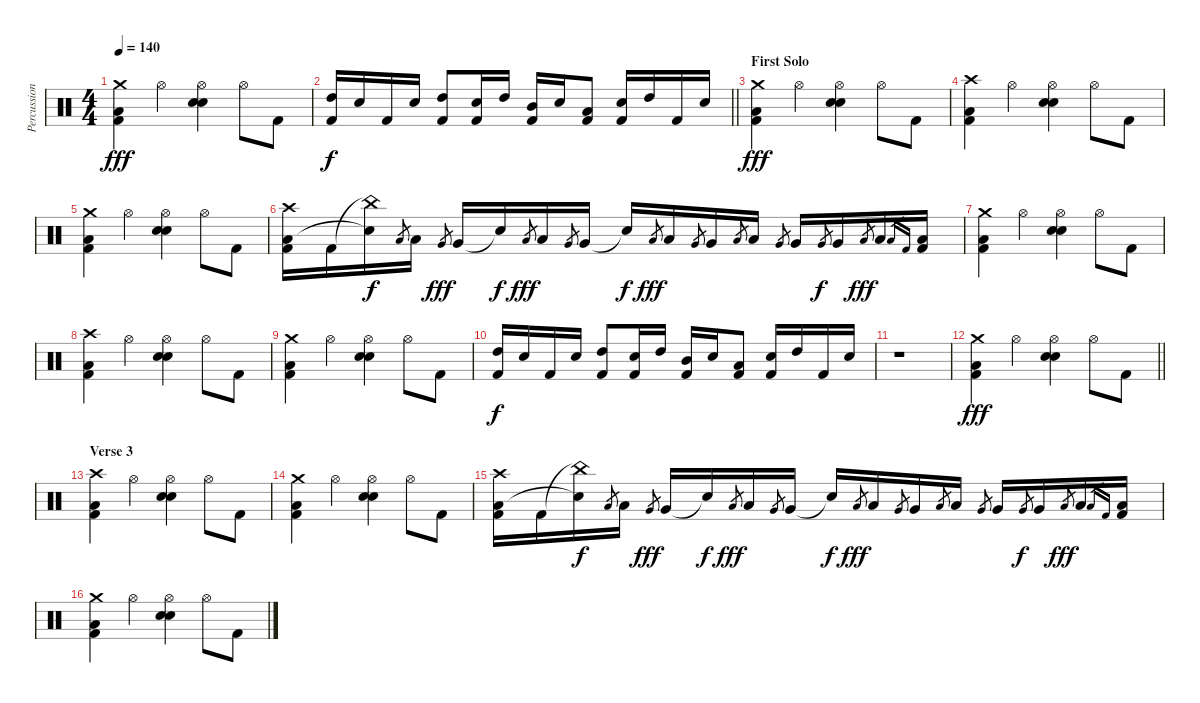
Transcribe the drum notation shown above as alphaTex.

\track ("Percussion" "Percussion") {instrument percussion}
\staff {score}
\articulation defaults
\ts (4 4)
\tempo 140
\clef neutral
\ks c
("Crash medium (hit)" "Low Floor Tom (hit)" "Kick (hit) 2").4{dy fff} "Hi-Hat (open)".4 ("Hi-Hat (open)" "Snare (hit) 2" "Electric Snare (hit)").4 "Hi-Hat (open)".8 "Kick (hit) 2".8 |
\barLineRight lightlight
("High Tom (hit)" "Kick (hit) 2").16{dy f} "Snare (hit) 2".16 "Kick (hit) 2".16 "Snare (hit) 2".16 ("High Tom (hit)" "Kick (hit) 2").8 ("Snare (hit) 2" "Kick (hit) 2").16 "High Tom (hit)".16 ("Mid Tom (hit)" "Kick (hit) 2").16 "Snare (hit) 2".16 ("Low Tom (hit)" "Kick (hit) 2").8 ("Snare (hit) 2" "Kick (hit) 2").16 "High Tom (hit)".16 "Kick (hit) 2".16 "Snare (hit) 2".16 |
\section ("" "First Solo")
("Crash medium (hit)" "Low Floor Tom (hit)" "Kick (hit) 2").4{dy fff} "Hi-Hat (open)".4 ("Hi-Hat (open)" "Snare (hit) 2" "Electric Snare (hit)").4 "Hi-Hat (open)".8 "Kick (hit) 2".8 |
("Crash high (hit)" "Low Floor Tom (hit)" "Kick (hit) 2").4 "Hi-Hat (open)".4 ("Hi-Hat (open)" "Snare (hit) 2" "Electric Snare (hit)").4 "Hi-Hat (open)".8 "Kick (hit) 2".8 |
("Crash medium (hit)" "Low Floor Tom (hit)" "Kick (hit) 2").4 "Hi-Hat (open)".4 ("Hi-Hat (open)" "Snare (hit) 2" "Electric Snare (hit)").4 "Hi-Hat (open)".8 "Kick (hit) 2".8 |
("Crash high (hit)" "Low Floor Tom (hit)" "Kick (hit) 2").16 "Kick (hit) 2".16 ("China (hit)"{t} "Snare (hit)"{t}).16{dy f} "Low Floor Tom (hit)".8{gr} "Low Floor Tom (hit)".16 "Very Low Tom (hit)".8{gr dy fff} "Very Low Tom (hit)".16 "Snare (hit)"{t}.16{dy f} "Low Floor Tom (hit)".8{gr dy fff} "Low Floor Tom (hit)".16 "Very Low Tom (hit)".8{gr} "Very Low Tom (hit)".16 "Snare (hit) 2"{t}.16{dy f} "Low Floor Tom (hit)".8{gr dy fff} "Low Floor Tom (hit)".16 "Very Low Tom (hit)".8{gr} "Very Low Tom (hit)".16 "Low Floor Tom (hit)".8{gr} "Low Floor Tom (hit)".16 "Very Low Tom (hit)".8{gr} "Very Low Tom (hit)".16 "Very Low Tom (hit)".8{gr dy f} "Very Low Tom (hit)".16 "Low Floor Tom (hit)".8{gr dy fff} "Low Floor Tom (hit)".16 "Low Floor Tom (hit)".16{gr} "Kick (hit) 2".16{gr} ("Low Floor Tom (hit)" "Kick (hit) 2").16 |
("Crash medium (hit)" "Low Floor Tom (hit)" "Kick (hit) 2").4 "Hi-Hat (open)".4 ("Hi-Hat (open)" "Snare (hit) 2" "Electric Snare (hit)").4 "Hi-Hat (open)".8 "Kick (hit) 2".8 |
("Crash high (hit)" "Low Floor Tom (hit)" "Kick (hit) 2").4 "Hi-Hat (open)".4 ("Hi-Hat (open)" "Snare (hit) 2" "Electric Snare (hit)").4 "Hi-Hat (open)".8 "Kick (hit) 2".8 |
("Crash medium (hit)" "Low Floor Tom (hit)" "Kick (hit) 2").4 "Hi-Hat (open)".4 ("Hi-Hat (open)" "Snare (hit) 2" "Electric Snare (hit)").4 "Hi-Hat (open)".8 "Kick (hit) 2".8 |
("High Tom (hit)" "Kick (hit) 2").16{dy f} "Snare (hit) 2".16 "Kick (hit) 2".16 "Snare (hit) 2".16 ("High Tom (hit)" "Kick (hit) 2").8 ("Snare (hit) 2" "Kick (hit) 2").16 "High Tom (hit)".16 ("Mid Tom (hit)" "Kick (hit) 2").16 "Snare (hit) 2".16 ("Low Tom (hit)" "Kick (hit) 2").8 ("Snare (hit) 2" "Kick (hit) 2").16 "High Tom (hit)".16 "Kick (hit) 2".16 "Snare (hit) 2".16 |
r.1 |
\barLineRight lightlight
("Crash medium (hit)" "Low Floor Tom (hit)" "Kick (hit) 2").4{dy fff} "Hi-Hat (open)".4 ("Hi-Hat (open)" "Snare (hit) 2" "Electric Snare (hit)").4 "Hi-Hat (open)".8 "Kick (hit) 2".8 |
\section ("" "Verse 3")
("Crash high (hit)" "Low Floor Tom (hit)" "Kick (hit) 2").4 "Hi-Hat (open)".4 ("Hi-Hat (open)" "Snare (hit) 2" "Electric Snare (hit)").4 "Hi-Hat (open)".8 "Kick (hit) 2".8 |
("Crash medium (hit)" "Low Floor Tom (hit)" "Kick (hit) 2").4 "Hi-Hat (open)".4 ("Hi-Hat (open)" "Snare (hit) 2" "Electric Snare (hit)").4 "Hi-Hat (open)".8 "Kick (hit) 2".8 |
("Crash high (hit)" "Low Floor Tom (hit)" "Kick (hit) 2").16 "Kick (hit) 2".16 ("China (hit)"{t} "Snare (hit)"{t}).16{dy f} "Low Floor Tom (hit)".8{gr} "Low Floor Tom (hit)".16 "Very Low Tom (hit)".8{gr dy fff} "Very Low Tom (hit)".16 "Snare (hit)"{t}.16{dy f} "Low Floor Tom (hit)".8{gr dy fff} "Low Floor Tom (hit)".16 "Very Low Tom (hit)".8{gr} "Very Low Tom (hit)".16 "Snare (hit) 2"{t}.16{dy f} "Low Floor Tom (hit)".8{gr dy fff} "Low Floor Tom (hit)".16 "Very Low Tom (hit)".8{gr} "Very Low Tom (hit)".16 "Low Floor Tom (hit)".8{gr} "Low Floor Tom (hit)".16 "Very Low Tom (hit)".8{gr} "Very Low Tom (hit)".16 "Very Low Tom (hit)".8{gr dy f} "Very Low Tom (hit)".16 "Low Floor Tom (hit)".8{gr dy fff} "Low Floor Tom (hit)".16 "Low Floor Tom (hit)".16{gr} "Kick (hit) 2".16{gr} ("Low Floor Tom (hit)" "Kick (hit) 2").16 |
("Crash medium (hit)" "Low Floor Tom (hit)" "Kick (hit) 2").4 "Hi-Hat (open)".4 ("Hi-Hat (open)" "Snare (hit) 2" "Electric Snare (hit)").4 "Hi-Hat (open)".8 "Kick (hit) 2".8
